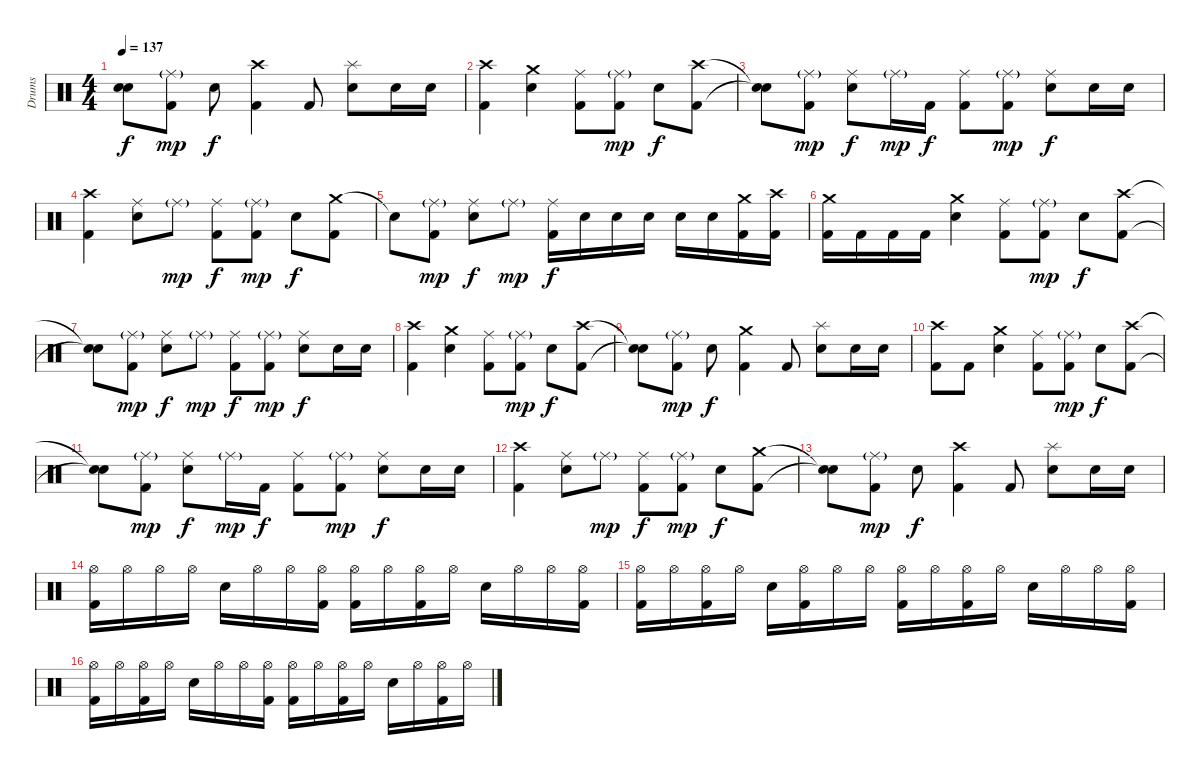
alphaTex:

\track ("Drums" "Drums") {instrument percussion}
\staff {score}
\articulation defaults
\ts (4 4)
\tempo 137
\clef neutral
\ks c
("Snare (hit)"{t} "Snare (hit)"{t}).8{dy f} ("Ride (middle)"{g} "Kick (hit) 2").8{dy mp} "Snare (hit) 2".8{dy f} ("Crash high (hit)" "Kick (hit) 2").4 "Kick (hit) 2".8 ("Splash (hit)" "Snare (hit) 2").8 "Snare (hit) 2".16 "Snare (hit) 2".16 |
("Crash high (hit)" "Kick (hit) 2").4 ("Crash medium (hit)" "Snare (hit) 2").4 ("Ride (middle)" "Kick (hit) 2").8 ("Ride (middle)"{g} "Kick (hit) 2").8{dy mp} "Snare (hit) 2".8{dy f} ("Crash high (hit)" "Kick (hit) 2").8 |
("Snare (hit)"{t} "Snare (hit)"{t}).8 ("Ride (middle)"{g} "Kick (hit) 2").8{dy mp} ("Ride (middle)" "Snare (hit) 2").8{dy f} "Ride (middle)"{g}.16{dy mp} "Kick (hit) 2".16{dy f} ("Ride (middle)" "Kick (hit) 2").8 ("Ride (middle)"{g} "Kick (hit) 2").8{dy mp} ("Ride (middle)" "Snare (hit) 2").8{dy f} "Snare (hit) 2".16 "Snare (hit) 2".16 |
("Crash high (hit)" "Kick (hit) 2").4 ("Ride (middle)" "Snare (hit) 2").8 "Ride (middle)"{g}.8{dy mp} ("Ride (middle)" "Kick (hit) 2").8{dy f} ("Ride (middle)"{g} "Kick (hit) 2").8{dy mp} "Snare (hit) 2".8{dy f} ("Crash medium (hit)" "Kick (hit) 2").8 |
"Snare (hit)"{t}.8 ("Ride (middle)"{g} "Kick (hit) 2").8{dy mp} ("Ride (middle)" "Snare (hit) 2").8{dy f} "Ride (middle)"{g}.8{dy mp} ("Ride (middle)" "Kick (hit) 2").16{dy f} "Snare (hit) 2".16 "Snare (hit) 2".16 "Snare (hit) 2".16 "Snare (hit) 2".16 "Snare (hit) 2".16 ("Crash medium (hit)" "Kick (hit) 2").16 ("Crash high (hit)" "Kick (hit) 2").16 |
("Crash medium (hit)" "Kick (hit) 2").16 "Kick (hit) 2".16 "Kick (hit) 2".16 "Kick (hit) 2".16 ("Crash medium (hit)" "Snare (hit) 2").4 ("Ride (middle)" "Kick (hit) 2").8 ("Ride (middle)"{g} "Kick (hit) 2").8{dy mp} "Snare (hit) 2".8{dy f} ("Crash high (hit)" "Kick (hit) 2").8 |
("Snare (hit)"{t} "Snare (hit)"{t}).8 ("Ride (middle)"{g} "Kick (hit) 2").8{dy mp} ("Ride (middle)" "Snare (hit) 2").8{dy f} "Ride (middle)"{g}.8{dy mp} ("Ride (middle)" "Kick (hit) 2").8{dy f} ("Ride (middle)"{g} "Kick (hit) 2").8{dy mp} ("Ride (middle)" "Snare (hit) 2").8{dy f} "Snare (hit) 2".16 "Snare (hit) 2".16 |
("Crash high (hit)" "Kick (hit) 2").4 ("Crash medium (hit)" "Snare (hit) 2").4 ("Ride (middle)" "Kick (hit) 2").8 ("Ride (middle)"{g} "Kick (hit) 2").8{dy mp} "Snare (hit) 2".8{dy f} ("Crash high (hit)" "Kick (hit) 2").8 |
("Snare (hit)"{t} "Snare (hit)"{t}).8 ("Ride (middle)"{g} "Kick (hit) 2").8{dy mp} "Snare (hit) 2".8{dy f} ("Crash medium (hit)" "Kick (hit) 2").4 "Kick (hit) 2".8 ("Splash (hit)" "Snare (hit) 2").8 "Snare (hit) 2".16 "Snare (hit) 2".16 |
("Crash high (hit)" "Kick (hit) 2").8 "Kick (hit) 2".8 ("Crash medium (hit)" "Snare (hit) 2").4 ("Ride (middle)" "Kick (hit) 2").8 ("Ride (middle)"{g} "Kick (hit) 2").8{dy mp} "Snare (hit) 2".8{dy f} ("Crash high (hit)" "Kick (hit) 2").8 |
("Snare (hit)"{t} "Snare (hit)"{t}).8 ("Ride (middle)"{g} "Kick (hit) 2").8{dy mp} ("Ride (middle)" "Snare (hit) 2").8{dy f} "Ride (middle)"{g}.16{dy mp} "Kick (hit) 2".16{dy f} ("Ride (middle)" "Kick (hit) 2").8 ("Ride (middle)"{g} "Kick (hit) 2").8{dy mp} ("Ride (middle)" "Snare (hit) 2").8{dy f} "Snare (hit) 2".16 "Snare (hit) 2".16 |
("Crash high (hit)" "Kick (hit) 2").4 ("Ride (middle)" "Snare (hit) 2").8 "Ride (middle)"{g}.8{dy mp} ("Ride (middle)" "Kick (hit) 2").8{dy f} ("Ride (middle)"{g} "Kick (hit) 2").8{dy mp} "Snare (hit) 2".8{dy f} ("Crash medium (hit)" "Kick (hit) 2").8 |
("Snare (hit)"{t} "Snare (hit)"{t}).8 ("Ride (middle)"{g} "Kick (hit) 2").8{dy mp} "Snare (hit) 2".8{dy f} ("Crash high (hit)" "Kick (hit) 2").4 "Kick (hit) 2".8 ("Splash (hit)" "Snare (hit) 2").8 "Snare (hit) 2".16 "Snare (hit) 2".16 |
("Hi-Hat (open)" "Kick (hit) 2").16 "Hi-Hat (open)".16 "Hi-Hat (open)".16 "Hi-Hat (open)".16 "Snare (hit) 2".16 "Hi-Hat (open)".16 "Hi-Hat (open)".16 ("Hi-Hat (open)" "Kick (hit) 2").16 ("Hi-Hat (open)" "Kick (hit) 2").16 "Hi-Hat (open)".16 ("Hi-Hat (open)" "Kick (hit) 2").16 "Hi-Hat (open)".16 "Snare (hit) 2".16 "Hi-Hat (open)".16 "Hi-Hat (open)".16 ("Hi-Hat (open)" "Kick (hit) 2").16 |
("Hi-Hat (open)" "Kick (hit) 2").16 "Hi-Hat (open)".16 ("Hi-Hat (open)" "Kick (hit) 2").16 "Hi-Hat (open)".16 "Snare (hit) 2".16 ("Hi-Hat (open)" "Kick (hit) 2").16 "Hi-Hat (open)".16 "Hi-Hat (open)".16 ("Hi-Hat (open)" "Kick (hit) 2").16 "Hi-Hat (open)".16 ("Hi-Hat (open)" "Kick (hit) 2").16 "Hi-Hat (open)".16 "Snare (hit) 2".16 "Hi-Hat (open)".16 "Hi-Hat (open)".16 ("Hi-Hat (open)" "Kick (hit) 2").16 |
("Hi-Hat (open)" "Kick (hit) 2").16 "Hi-Hat (open)".16 ("Hi-Hat (open)" "Kick (hit) 2").16 "Hi-Hat (open)".16 "Snare (hit) 2".16 "Hi-Hat (open)".16 "Hi-Hat (open)".16 ("Hi-Hat (open)" "Kick (hit) 2").16 ("Hi-Hat (open)" "Kick (hit) 2").16 "Hi-Hat (open)".16 ("Hi-Hat (open)" "Kick (hit) 2").16 "Hi-Hat (open)".16 "Snare (hit) 2".16 "Hi-Hat (open)".16 ("Hi-Hat (open)" "Kick (hit) 2").16 "Hi-Hat (open)".16
